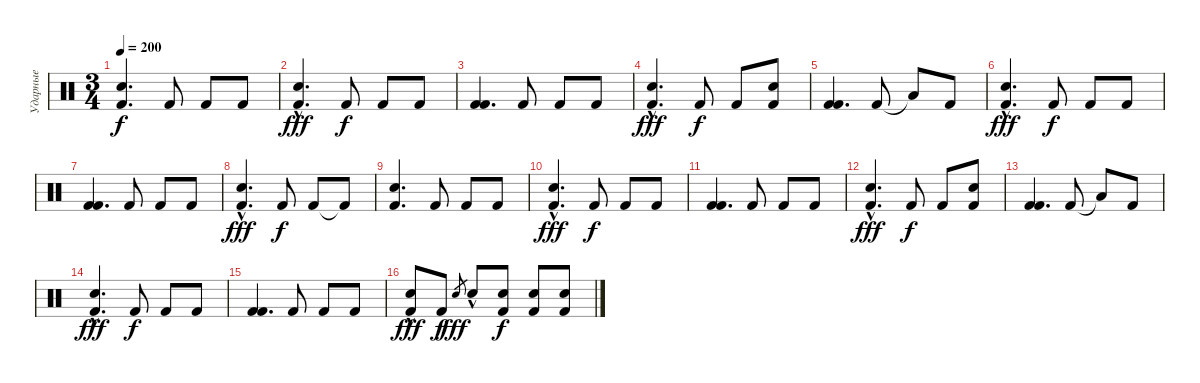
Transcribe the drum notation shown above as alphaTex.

\track ("Ударные" "Ударные") {instrument percussion}
\staff {score}
\articulation defaults
\ts (3 4)
\tempo 200
\clef neutral
\ks c
("Snare (hit) 2" "Kick (hit) 2").4{d dy f} "Kick (hit) 2".8 "Kick (hit) 2".8 "Kick (hit) 2".8 |
("Electric Snare (hit)"{hac} "Kick (hit) 2").4{d dy fff} "Kick (hit) 2".8{dy f} "Kick (hit) 2".8 "Kick (hit) 2".8 |
("Kick (hit) 2" "Kick (hit) 2").4{d} "Kick (hit) 2".8 "Kick (hit) 2".8 "Kick (hit) 2".8 |
("Electric Snare (hit)"{hac} "Kick (hit) 2").4{d dy fff} "Kick (hit) 2".8{dy f} "Kick (hit) 2".8 ("Snare (hit) 2" "Kick (hit) 2").8 |
("Kick (hit) 2" "Kick (hit) 2").4{d} "Kick (hit) 2".8 "Low Floor Tom (hit)"{t}.8 "Kick (hit) 2".8 |
("Electric Snare (hit)"{hac} "Kick (hit) 2").4{d dy fff} "Kick (hit) 2".8{dy f} "Kick (hit) 2".8 "Kick (hit) 2".8 |
("Kick (hit) 2" "Kick (hit) 2").4{d} "Kick (hit) 2".8 "Kick (hit) 2".8 "Kick (hit) 2".8 |
("Electric Snare (hit)"{hac} "Kick (hit) 2").4{d dy fff} "Kick (hit) 2".8{dy f} "Kick (hit) 2".8 "Kick (hit) 2"{t}.8 |
("Snare (hit) 2" "Kick (hit) 2").4{d} "Kick (hit) 2".8 "Kick (hit) 2".8 "Kick (hit) 2".8 |
("Electric Snare (hit)"{hac} "Kick (hit) 2").4{d dy fff} "Kick (hit) 2".8{dy f} "Kick (hit) 2".8 "Kick (hit) 2".8 |
("Kick (hit) 2" "Kick (hit) 2").4{d} "Kick (hit) 2".8 "Kick (hit) 2".8 "Kick (hit) 2".8 |
("Electric Snare (hit)"{hac} "Kick (hit) 2").4{d dy fff} "Kick (hit) 2".8{dy f} "Kick (hit) 2".8 ("Snare (hit) 2" "Kick (hit) 2").8 |
("Kick (hit) 2" "Kick (hit) 2").4{d} "Kick (hit) 2".8 "Low Floor Tom (hit)"{t}.8 "Kick (hit) 2".8 |
("Electric Snare (hit)"{hac} "Kick (hit) 2").4{d dy fff} "Kick (hit) 2".8{dy f} "Kick (hit) 2".8 "Kick (hit) 2".8 |
("Kick (hit) 2" "Kick (hit) 2").4{d} "Kick (hit) 2".8 "Kick (hit) 2".8 "Kick (hit) 2".8 |
("Electric Snare (hit)"{hac} "Kick (hit) 2").8{dy fff} "Kick (hit) 2".8{dy f} "Electric Snare (hit)".8{gr dy fff} "Electric Snare (hit)"{hac}.8 ("Electric Snare (hit)" "Kick (hit) 2").8{dy f} ("Electric Snare (hit)" "Kick (hit) 2").8 ("Electric Snare (hit)" "Kick (hit) 2").8
